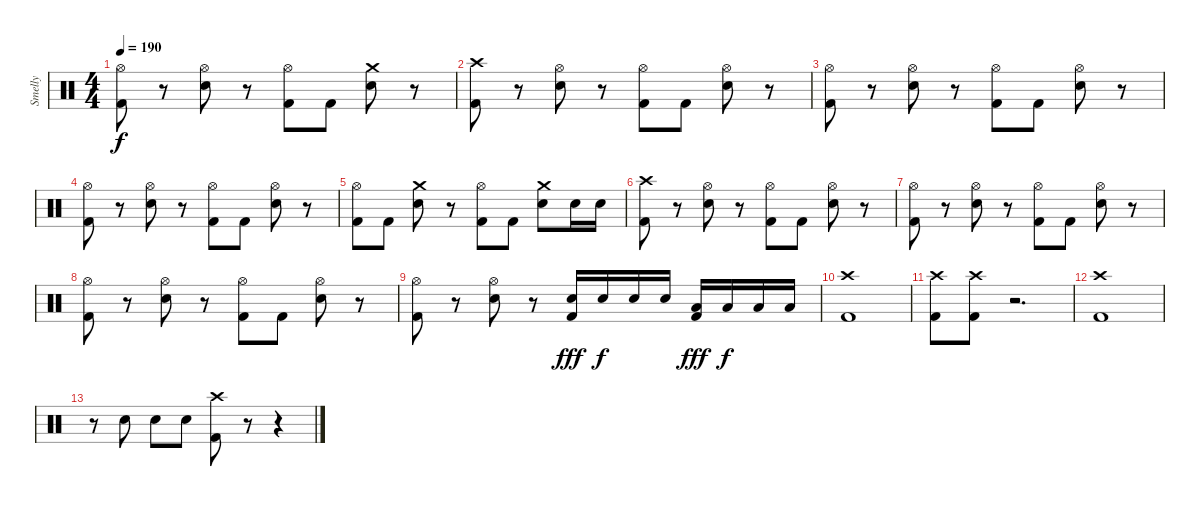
\track ("Smelly" "Smelly") {instrument percussion}
\staff {score}
\articulation defaults
\ts (4 4)
\tempo 190
\clef neutral
\ks c
("Hi-Hat (open)" "Kick (hit) 2").8{dy f} r.8 ("Hi-Hat (open)" "Electric Snare (hit)").8 r.8 ("Hi-Hat (open)" "Kick (hit) 2").8 "Kick (hit) 2".8 ("Crash medium (hit)" "Electric Snare (hit)").8 r.8 |
("Crash high (hit)" "Kick (hit) 2").8 r.8 ("Hi-Hat (open)" "Electric Snare (hit)").8 r.8 ("Hi-Hat (open)" "Kick (hit) 2").8 "Kick (hit) 2".8 ("Hi-Hat (open)" "Electric Snare (hit)").8 r.8 |
("Hi-Hat (open)" "Kick (hit) 2").8 r.8 ("Hi-Hat (open)" "Electric Snare (hit)").8 r.8 ("Hi-Hat (open)" "Kick (hit) 2").8 "Kick (hit) 2".8 ("Hi-Hat (open)" "Electric Snare (hit)").8 r.8 |
("Hi-Hat (open)" "Kick (hit) 2").8 r.8 ("Hi-Hat (open)" "Electric Snare (hit)").8 r.8 ("Hi-Hat (open)" "Kick (hit) 2").8 "Kick (hit) 2".8 ("Hi-Hat (open)" "Electric Snare (hit)").8 r.8 |
("Hi-Hat (open)" "Kick (hit) 2").8 "Kick (hit) 2".8 ("Crash medium (hit)" "Electric Snare (hit)").8 r.8 ("Hi-Hat (open)" "Kick (hit) 2").8 "Kick (hit) 2".8 ("Crash medium (hit)" "Electric Snare (hit)").8 "Electric Snare (hit)".16 "Electric Snare (hit)".16 |
("Crash high (hit)" "Kick (hit) 2").8 r.8 ("Hi-Hat (open)" "Electric Snare (hit)").8 r.8 ("Hi-Hat (open)" "Kick (hit) 2").8 "Kick (hit) 2".8 ("Hi-Hat (open)" "Electric Snare (hit)").8 r.8 |
("Hi-Hat (open)" "Kick (hit) 2").8 r.8 ("Hi-Hat (open)" "Electric Snare (hit)").8 r.8 ("Hi-Hat (open)" "Kick (hit) 2").8 "Kick (hit) 2".8 ("Hi-Hat (open)" "Electric Snare (hit)").8 r.8 |
("Hi-Hat (open)" "Kick (hit) 2").8 r.8 ("Hi-Hat (open)" "Electric Snare (hit)").8 r.8 ("Hi-Hat (open)" "Kick (hit) 2").8 "Kick (hit) 2".8 ("Hi-Hat (open)" "Electric Snare (hit)").8 r.8 |
("Hi-Hat (open)" "Kick (hit) 2").8 r.8 ("Hi-Hat (open)" "Electric Snare (hit)").8 r.8 ("Electric Snare (hit)" "Kick (hit) 2").16{dy fff} "Electric Snare (hit)".16{dy f} "Electric Snare (hit)".16 "Electric Snare (hit)".16 ("Low Tom (hit)" "Kick (hit) 2").16{dy fff} "Low Tom (hit)".16{dy f} "Low Tom (hit)".16 "Low Tom (hit)".16 |
("Crash high (hit)" "Kick (hit) 2").1 |
("Crash high (hit)" "Kick (hit) 2").8 ("Crash high (hit)" "Kick (hit) 2").8 r.2{d} |
("Crash high (hit)" "Kick (hit) 2").1 |
r.8 "Electric Snare (hit)".8 "Electric Snare (hit)".8 "Electric Snare (hit)".8 ("Crash high (hit)" "Kick (hit) 2").8 r.8 r.4
